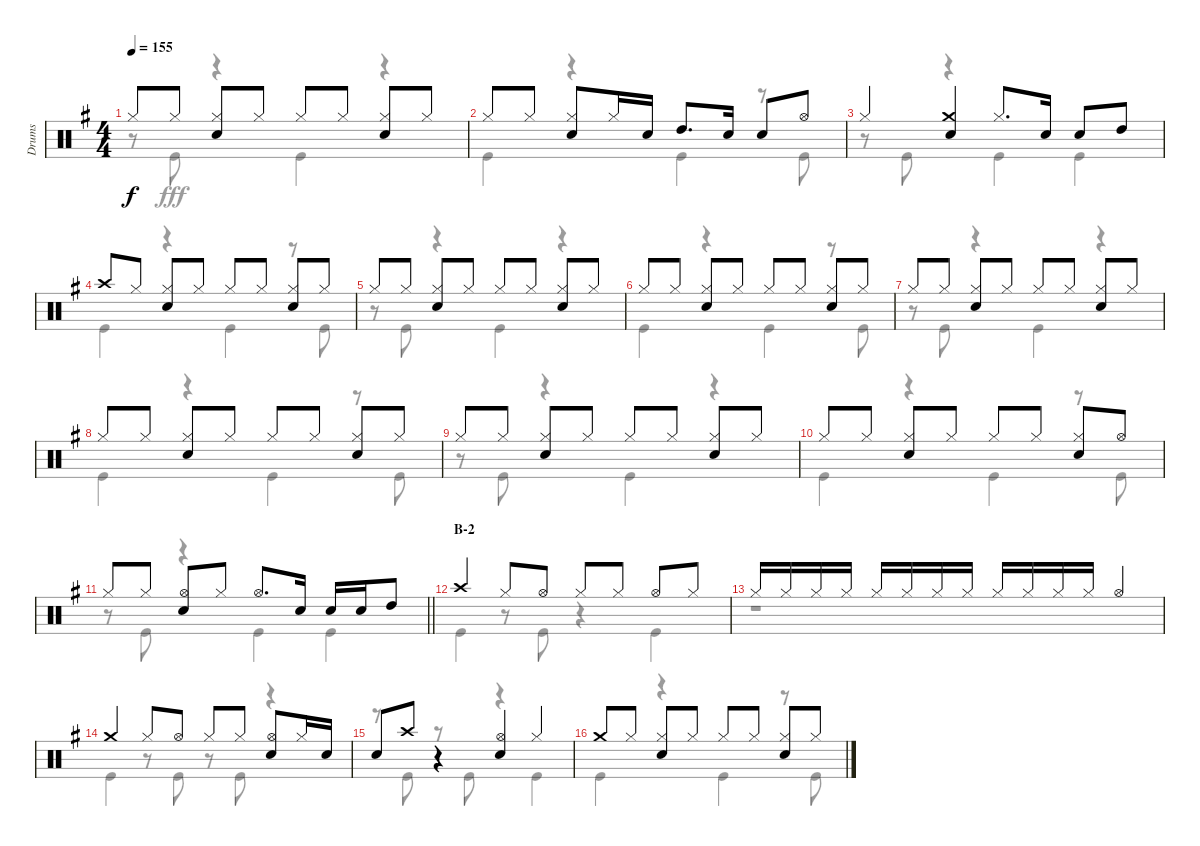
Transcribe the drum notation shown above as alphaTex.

\track ("Drums" "Drums") {instrument percussion}
\staff {score}
\articulation defaults
\voice
\ts (4 4)
\tempo 155
\clef neutral
\ks g "Hi-Hat (closed)".8{dy f} "Hi-Hat (closed)".8
("Hi-Hat (closed)" "Snare (hit) 2").8 "Hi-Hat (closed)".8 "Hi-Hat (closed)".8 "Hi-Hat (closed)".8 ("Hi-Hat (closed)" "Snare (hit) 2").8 "Hi-Hat (closed)".8 |
"Hi-Hat (closed)".8 "Hi-Hat (closed)".8 ("Hi-Hat (closed)" "Snare (hit) 2").8 "Hi-Hat (closed)".16 "Snare (hit) 2".16 "High Tom (hit)".8{d} "Snare (hit) 2".16 "Snare (hit) 2".8 "Hi-Hat (open)".8 |
"Hi-Hat (closed)".4 ("Crash medium (hit)" "Snare (hit) 2").4 "Hi-Hat (closed)".8{d} "Snare (hit) 2".16 "Snare (hit) 2".8 "High Tom (hit)".8 |
"Crash high (hit)".8 "Hi-Hat (closed)".8 ("Hi-Hat (closed)" "Snare (hit) 2").8 "Hi-Hat (closed)".8 "Hi-Hat (closed)".8 "Hi-Hat (closed)".8 ("Hi-Hat (closed)" "Snare (hit) 2").8 "Hi-Hat (closed)".8 |
"Hi-Hat (closed)".8 "Hi-Hat (closed)".8 ("Hi-Hat (closed)" "Snare (hit) 2").8 "Hi-Hat (closed)".8 "Hi-Hat (closed)".8 "Hi-Hat (closed)".8 ("Hi-Hat (closed)" "Snare (hit) 2").8 "Hi-Hat (closed)".8 |
"Hi-Hat (closed)".8 "Hi-Hat (closed)".8 ("Hi-Hat (closed)" "Snare (hit) 2").8 "Hi-Hat (closed)".8 "Hi-Hat (closed)".8 "Hi-Hat (closed)".8 ("Hi-Hat (closed)" "Snare (hit) 2").8 "Hi-Hat (closed)".8 |
"Hi-Hat (closed)".8 "Hi-Hat (closed)".8 ("Hi-Hat (closed)" "Snare (hit) 2").8 "Hi-Hat (closed)".8 "Hi-Hat (closed)".8 "Hi-Hat (closed)".8 ("Hi-Hat (closed)" "Snare (hit) 2").8 "Hi-Hat (closed)".8 |
"Hi-Hat (closed)".8 "Hi-Hat (closed)".8 ("Hi-Hat (closed)" "Snare (hit) 2").8 "Hi-Hat (closed)".8 "Hi-Hat (closed)".8 "Hi-Hat (closed)".8 ("Hi-Hat (closed)" "Snare (hit) 2").8 "Hi-Hat (closed)".8 |
"Hi-Hat (closed)".8 "Hi-Hat (closed)".8 ("Hi-Hat (closed)" "Snare (hit) 2").8 "Hi-Hat (closed)".8 "Hi-Hat (closed)".8 "Hi-Hat (closed)".8 ("Hi-Hat (closed)" "Snare (hit) 2").8 "Hi-Hat (closed)".8 |
"Hi-Hat (closed)".8 "Hi-Hat (closed)".8 ("Hi-Hat (closed)" "Snare (hit) 2").8 "Hi-Hat (closed)".8 "Hi-Hat (closed)".8 "Hi-Hat (closed)".8 ("Hi-Hat (closed)" "Snare (hit) 2").8 "Hi-Hat (open)".8 |
\barLineRight lightlight "Hi-Hat (closed)".8 "Hi-Hat (closed)".8
("Hi-Hat (open)" "Snare (hit) 2").8 "Hi-Hat (closed)".8 "Hi-Hat (open)".8{d} "Snare (hit) 2".16 "Snare (hit) 2".16 "Snare (hit) 2".16 "High Tom (hit)".8 |
\section ("" "B-2")
"Crash high (hit)".4 "Hi-Hat (closed)".8 "Hi-Hat (open)".8 "Hi-Hat (closed)".8 "Hi-Hat (closed)".8 "Hi-Hat (open)".8 "Hi-Hat (closed)".8 |
"Hi-Hat (closed)".16 "Hi-Hat (closed)".16 "Hi-Hat (closed)".16 "Hi-Hat (closed)".16 "Hi-Hat (closed)".16 "Hi-Hat (closed)".16 "Hi-Hat (closed)".16 "Hi-Hat (closed)".16 "Hi-Hat (closed)".16 "Hi-Hat (closed)".16 "Hi-Hat (closed)".16 "Hi-Hat (closed)".16 "Hi-Hat (open)".4 |
"Crash medium (hit)".4 "Hi-Hat (closed)".8 "Hi-Hat (open)".8 "Hi-Hat (closed)".8 "Hi-Hat (closed)".8 ("Hi-Hat (open)" "Snare (hit) 2").8 "Hi-Hat (closed)".16 "Snare (hit) 2".16 |
"Snare (hit) 2".8 "Crash high (hit)".8 r.4 ("Hi-Hat (open)" "Snare (hit) 2").4 "Hi-Hat (closed)".4 |
"Crash medium (hit)".8 "Hi-Hat (closed)".8 ("Hi-Hat (closed)" "Snare (hit) 2").8 "Hi-Hat (closed)".8 "Hi-Hat (closed)".8 "Hi-Hat (closed)".8 ("Hi-Hat (closed)" "Snare (hit) 2").8 "Hi-Hat (closed)".8
\voice
\clef neutral
\ottava regular
\simile none
\ks g
r.8{dy fff} "Kick (hit)".8 r.4 "Kick (hit)".4 r.4 |
"Kick (hit)".4 r.4 "Kick (hit)".4 r.8 "Kick (hit)".8 |
r.8 "Kick (hit)".8 r.4 "Kick (hit)".4 "Kick (hit)".4 |
"Kick (hit)".4 r.4 "Kick (hit)".4 r.8 "Kick (hit)".8 |
r.8 "Kick (hit)".8 r.4 "Kick (hit)".4 r.4 |
"Kick (hit)".4 r.4 "Kick (hit)".4 r.8 "Kick (hit)".8 |
r.8 "Kick (hit)".8 r.4 "Kick (hit)".4 r.4 |
"Kick (hit)".4 r.4 "Kick (hit)".4 r.8 "Kick (hit)".8 |
r.8 "Kick (hit)".8 r.4 "Kick (hit)".4 r.4 |
"Kick (hit)".4 r.4 "Kick (hit)".4 r.8 "Kick (hit)".8 |
\barLineRight lightlight
r.8 "Kick (hit)".8 r.4 "Kick (hit)".4 "Kick (hit)".4 |
"Kick (hit)".4 r.8 "Kick (hit)".8 r.4 "Kick (hit)".4 |
r.1 |
"Kick (hit)".4 r.8 "Kick (hit)".8 r.8 "Kick (hit)".8 r.4 |
r.8 "Kick (hit)".8 r.8 "Kick (hit)".8 r.4 "Kick (hit)".4 |
"Kick (hit)".4 r.4 "Kick (hit)".4 r.8 "Kick (hit)".8
